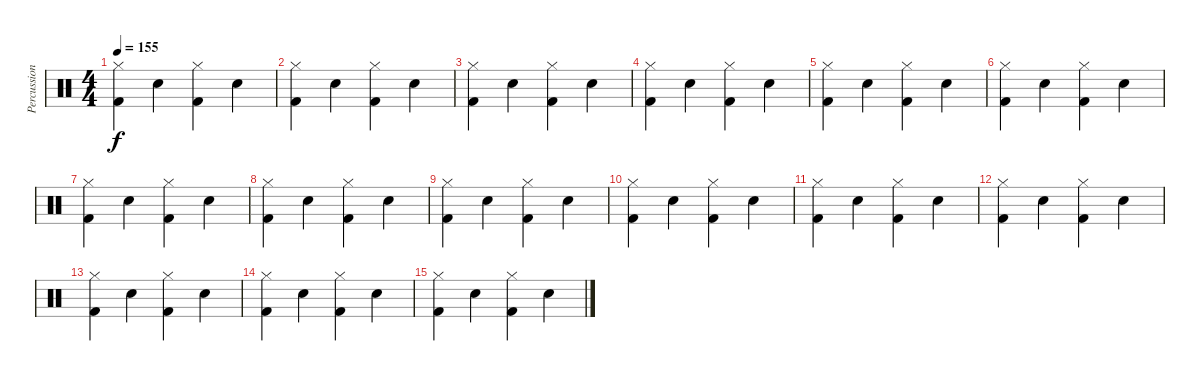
\track ("Percussion" "Percussion") {instrument percussion}
\staff {score}
\articulation defaults
\ts (4 4)
\tempo 155
\clef neutral
\ks c
("Hi-Hat (closed)" "Kick (hit) 2").4{dy f} "Electric Snare (hit)".4 ("Hi-Hat (closed)" "Kick (hit) 2").4 "Electric Snare (hit)".4 |
("Hi-Hat (closed)" "Kick (hit) 2").4 "Electric Snare (hit)".4 ("Hi-Hat (closed)" "Kick (hit) 2").4 "Electric Snare (hit)".4 |
("Hi-Hat (closed)" "Kick (hit) 2").4 "Electric Snare (hit)".4 ("Hi-Hat (closed)" "Kick (hit) 2").4 "Electric Snare (hit)".4 |
("Hi-Hat (closed)" "Kick (hit) 2").4 "Electric Snare (hit)".4 ("Hi-Hat (closed)" "Kick (hit) 2").4 "Electric Snare (hit)".4 |
("Hi-Hat (closed)" "Kick (hit) 2").4 "Electric Snare (hit)".4 ("Hi-Hat (closed)" "Kick (hit) 2").4 "Electric Snare (hit)".4 |
("Hi-Hat (closed)" "Kick (hit) 2").4 "Electric Snare (hit)".4 ("Hi-Hat (closed)" "Kick (hit) 2").4 "Electric Snare (hit)".4 |
("Hi-Hat (closed)" "Kick (hit) 2").4 "Electric Snare (hit)".4 ("Hi-Hat (closed)" "Kick (hit) 2").4 "Electric Snare (hit)".4 |
("Hi-Hat (closed)" "Kick (hit) 2").4 "Electric Snare (hit)".4 ("Hi-Hat (closed)" "Kick (hit) 2").4 "Electric Snare (hit)".4 |
("Hi-Hat (closed)" "Kick (hit) 2").4 "Electric Snare (hit)".4 ("Hi-Hat (closed)" "Kick (hit) 2").4 "Electric Snare (hit)".4 |
("Hi-Hat (closed)" "Kick (hit) 2").4 "Electric Snare (hit)".4 ("Hi-Hat (closed)" "Kick (hit) 2").4 "Electric Snare (hit)".4 |
("Hi-Hat (closed)" "Kick (hit) 2").4 "Electric Snare (hit)".4 ("Hi-Hat (closed)" "Kick (hit) 2").4 "Electric Snare (hit)".4 |
("Hi-Hat (closed)" "Kick (hit) 2").4 "Electric Snare (hit)".4 ("Hi-Hat (closed)" "Kick (hit) 2").4 "Electric Snare (hit)".4 |
("Hi-Hat (closed)" "Kick (hit) 2").4 "Electric Snare (hit)".4 ("Hi-Hat (closed)" "Kick (hit) 2").4 "Electric Snare (hit)".4 |
("Hi-Hat (closed)" "Kick (hit) 2").4 "Electric Snare (hit)".4 ("Hi-Hat (closed)" "Kick (hit) 2").4 "Electric Snare (hit)".4 |
("Hi-Hat (closed)" "Kick (hit) 2").4 "Electric Snare (hit)".4 ("Hi-Hat (closed)" "Kick (hit) 2").4 "Electric Snare (hit)".4
